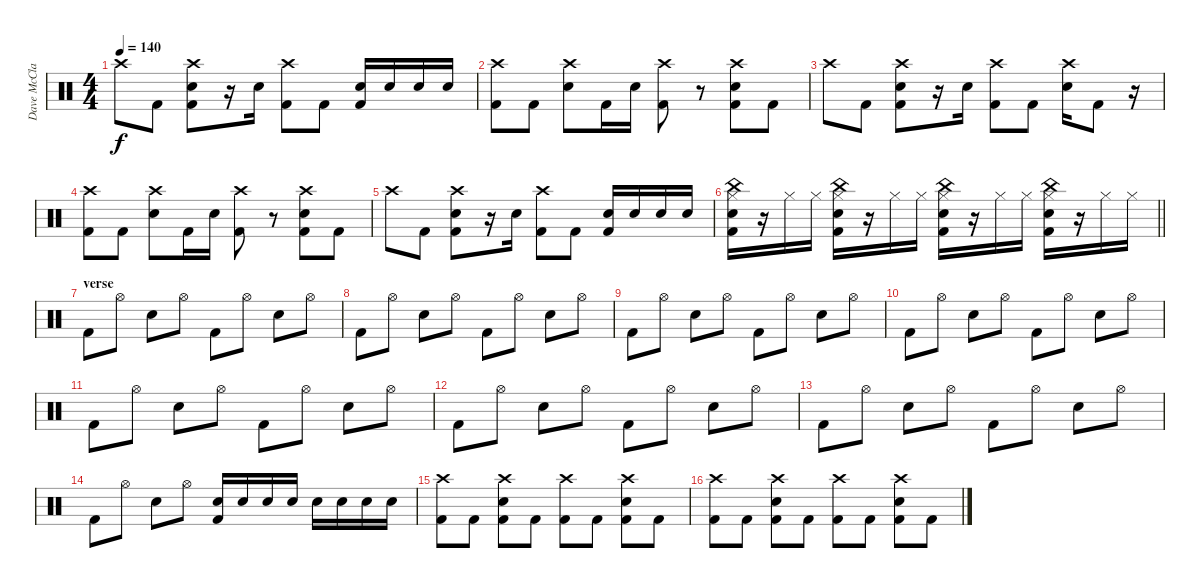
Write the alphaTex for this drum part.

\track ("Dave McClain" "Dave McCla") {solo instrument percussion}
\staff {score}
\articulation defaults
\ts (4 4)
\tempo 140
\clef neutral
\ks c "Crash high (hit)".8{dy f} "Kick (hit) 2".8
("Crash high (hit)" "Electric Snare (hit)" "Kick (hit) 2").8 r.16 "Electric Snare (hit)".16 ("Crash high (hit)" "Kick (hit) 2").8 "Kick (hit) 2".8 ("Electric Snare (hit)" "Kick (hit) 2").16 "Electric Snare (hit)".16 "Electric Snare (hit)".16 "Electric Snare (hit)".16 |
("Crash high (hit)" "Kick (hit) 2").8 "Kick (hit) 2".8 ("Crash high (hit)" "Electric Snare (hit)").8 "Kick (hit) 2".16 "Electric Snare (hit)".16 ("Crash high (hit)" "Kick (hit) 2").8 r.8 ("Crash high (hit)" "Electric Snare (hit)" "Kick (hit) 2").8 "Kick (hit) 2".8 |
"Crash high (hit)".8 "Kick (hit) 2".8 ("Crash high (hit)" "Electric Snare (hit)" "Kick (hit) 2").8 r.16 "Electric Snare (hit)".16 ("Crash high (hit)" "Kick (hit) 2").8 "Kick (hit) 2".8 ("Crash high (hit)" "Electric Snare (hit)").16 "Kick (hit) 2".8 r.16 |
("Crash high (hit)" "Kick (hit) 2").8 "Kick (hit) 2".8 ("Crash high (hit)" "Electric Snare (hit)").8 "Kick (hit) 2".16 "Electric Snare (hit)".16 ("Crash high (hit)" "Kick (hit) 2").8 r.8 ("Crash high (hit)" "Electric Snare (hit)" "Kick (hit) 2").8 "Kick (hit) 2".8 |
"Crash high (hit)".8 "Kick (hit) 2".8 ("Crash high (hit)" "Electric Snare (hit)" "Kick (hit) 2").8 r.16 "Electric Snare (hit)".16 ("Crash high (hit)" "Kick (hit) 2").8 "Kick (hit) 2".8 ("Electric Snare (hit)" "Kick (hit) 2").16 "Electric Snare (hit)".16 "Electric Snare (hit)".16 "Electric Snare (hit)".16 |
\barLineRight lightlight
("China (hit)" "Hi-Hat (closed)" "Electric Snare (hit)" "Kick (hit) 2").16 r.16 "Hi-Hat (closed)".16 "Hi-Hat (closed)".16 ("China (hit)" "Hi-Hat (closed)" "Electric Snare (hit)" "Kick (hit) 2").16 r.16 "Hi-Hat (closed)".16 "Hi-Hat (closed)".16 ("China (hit)" "Hi-Hat (closed)" "Electric Snare (hit)" "Kick (hit) 2").16 r.16 "Hi-Hat (closed)".16 "Hi-Hat (closed)".16 ("China (hit)" "Hi-Hat (closed)" "Electric Snare (hit)" "Kick (hit) 2").16 r.16 "Hi-Hat (closed)".16 "Hi-Hat (closed)".16 |
\section ("" "verse")
"Kick (hit) 2".8 "Hi-Hat (open)".8 "Electric Snare (hit)".8 "Hi-Hat (open)".8 "Kick (hit) 2".8 "Hi-Hat (open)".8 "Electric Snare (hit)".8 "Hi-Hat (open)".8 |
"Kick (hit) 2".8 "Hi-Hat (open)".8 "Electric Snare (hit)".8 "Hi-Hat (open)".8 "Kick (hit) 2".8 "Hi-Hat (open)".8 "Electric Snare (hit)".8 "Hi-Hat (open)".8 |
"Kick (hit) 2".8 "Hi-Hat (open)".8 "Electric Snare (hit)".8 "Hi-Hat (open)".8 "Kick (hit) 2".8 "Hi-Hat (open)".8 "Electric Snare (hit)".8 "Hi-Hat (open)".8 |
"Kick (hit) 2".8 "Hi-Hat (open)".8 "Electric Snare (hit)".8 "Hi-Hat (open)".8 "Kick (hit) 2".8 "Hi-Hat (open)".8 "Electric Snare (hit)".8 "Hi-Hat (open)".8 |
"Kick (hit) 2".8 "Hi-Hat (open)".8 "Electric Snare (hit)".8 "Hi-Hat (open)".8 "Kick (hit) 2".8 "Hi-Hat (open)".8 "Electric Snare (hit)".8 "Hi-Hat (open)".8 |
"Kick (hit) 2".8 "Hi-Hat (open)".8 "Electric Snare (hit)".8 "Hi-Hat (open)".8 "Kick (hit) 2".8 "Hi-Hat (open)".8 "Electric Snare (hit)".8 "Hi-Hat (open)".8 |
"Kick (hit) 2".8 "Hi-Hat (open)".8 "Electric Snare (hit)".8 "Hi-Hat (open)".8 "Kick (hit) 2".8 "Hi-Hat (open)".8 "Electric Snare (hit)".8 "Hi-Hat (open)".8 |
"Kick (hit) 2".8 "Hi-Hat (open)".8 "Electric Snare (hit)".8 "Hi-Hat (open)".8 ("Electric Snare (hit)" "Kick (hit) 2").16 "Electric Snare (hit)".16 "Electric Snare (hit)".16 "Electric Snare (hit)".16 "Electric Snare (hit)".16 "Electric Snare (hit)".16 "Electric Snare (hit)".16 "Electric Snare (hit)".16 |
("Crash high (hit)" "Kick (hit) 2").8 "Kick (hit) 2".8 ("Crash high (hit)" "Electric Snare (hit)" "Kick (hit) 2").8 "Kick (hit) 2".8 ("Crash high (hit)" "Kick (hit) 2").8 "Kick (hit) 2".8 ("Crash high (hit)" "Electric Snare (hit)" "Kick (hit) 2").8 "Kick (hit) 2".8 |
("Crash high (hit)" "Kick (hit) 2").8 "Kick (hit) 2".8 ("Crash high (hit)" "Electric Snare (hit)" "Kick (hit) 2").8 "Kick (hit) 2".8 ("Crash high (hit)" "Kick (hit) 2").8 "Kick (hit) 2".8 ("Crash high (hit)" "Electric Snare (hit)" "Kick (hit) 2").8 "Kick (hit) 2".8
